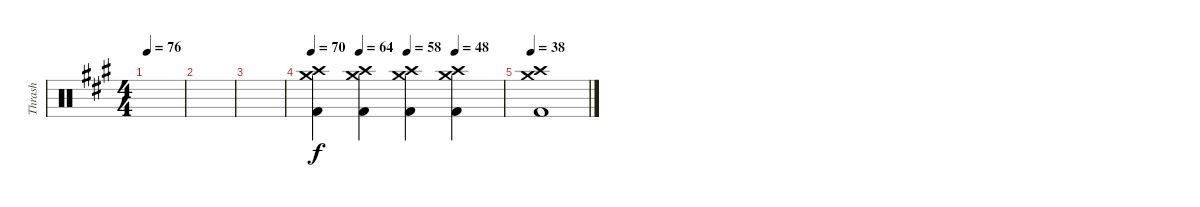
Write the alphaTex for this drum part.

\track ("Thrash" "Thrash") {instrument percussion}
\staff {score}
\articulation defaults
\ts (4 4)
\tempo 76
\clef neutral
\ks a
|
|
|
\tempo 70
\tempo (64 0.25)
\tempo (58 0.5)
\tempo (48 0.75)
("Crash medium (hit)" "Crash high (hit)" "Kick (hit) 2").4 ("Crash medium (hit)" "Crash high (hit)" "Kick (hit) 2").4 ("Crash medium (hit)" "Crash high (hit)" "Kick (hit) 2").4 ("Crash medium (hit)" "Crash high (hit)" "Kick (hit) 2").4 |
\tempo 38
("Crash medium (hit)" "Crash high (hit)" "Kick (hit) 2").1
